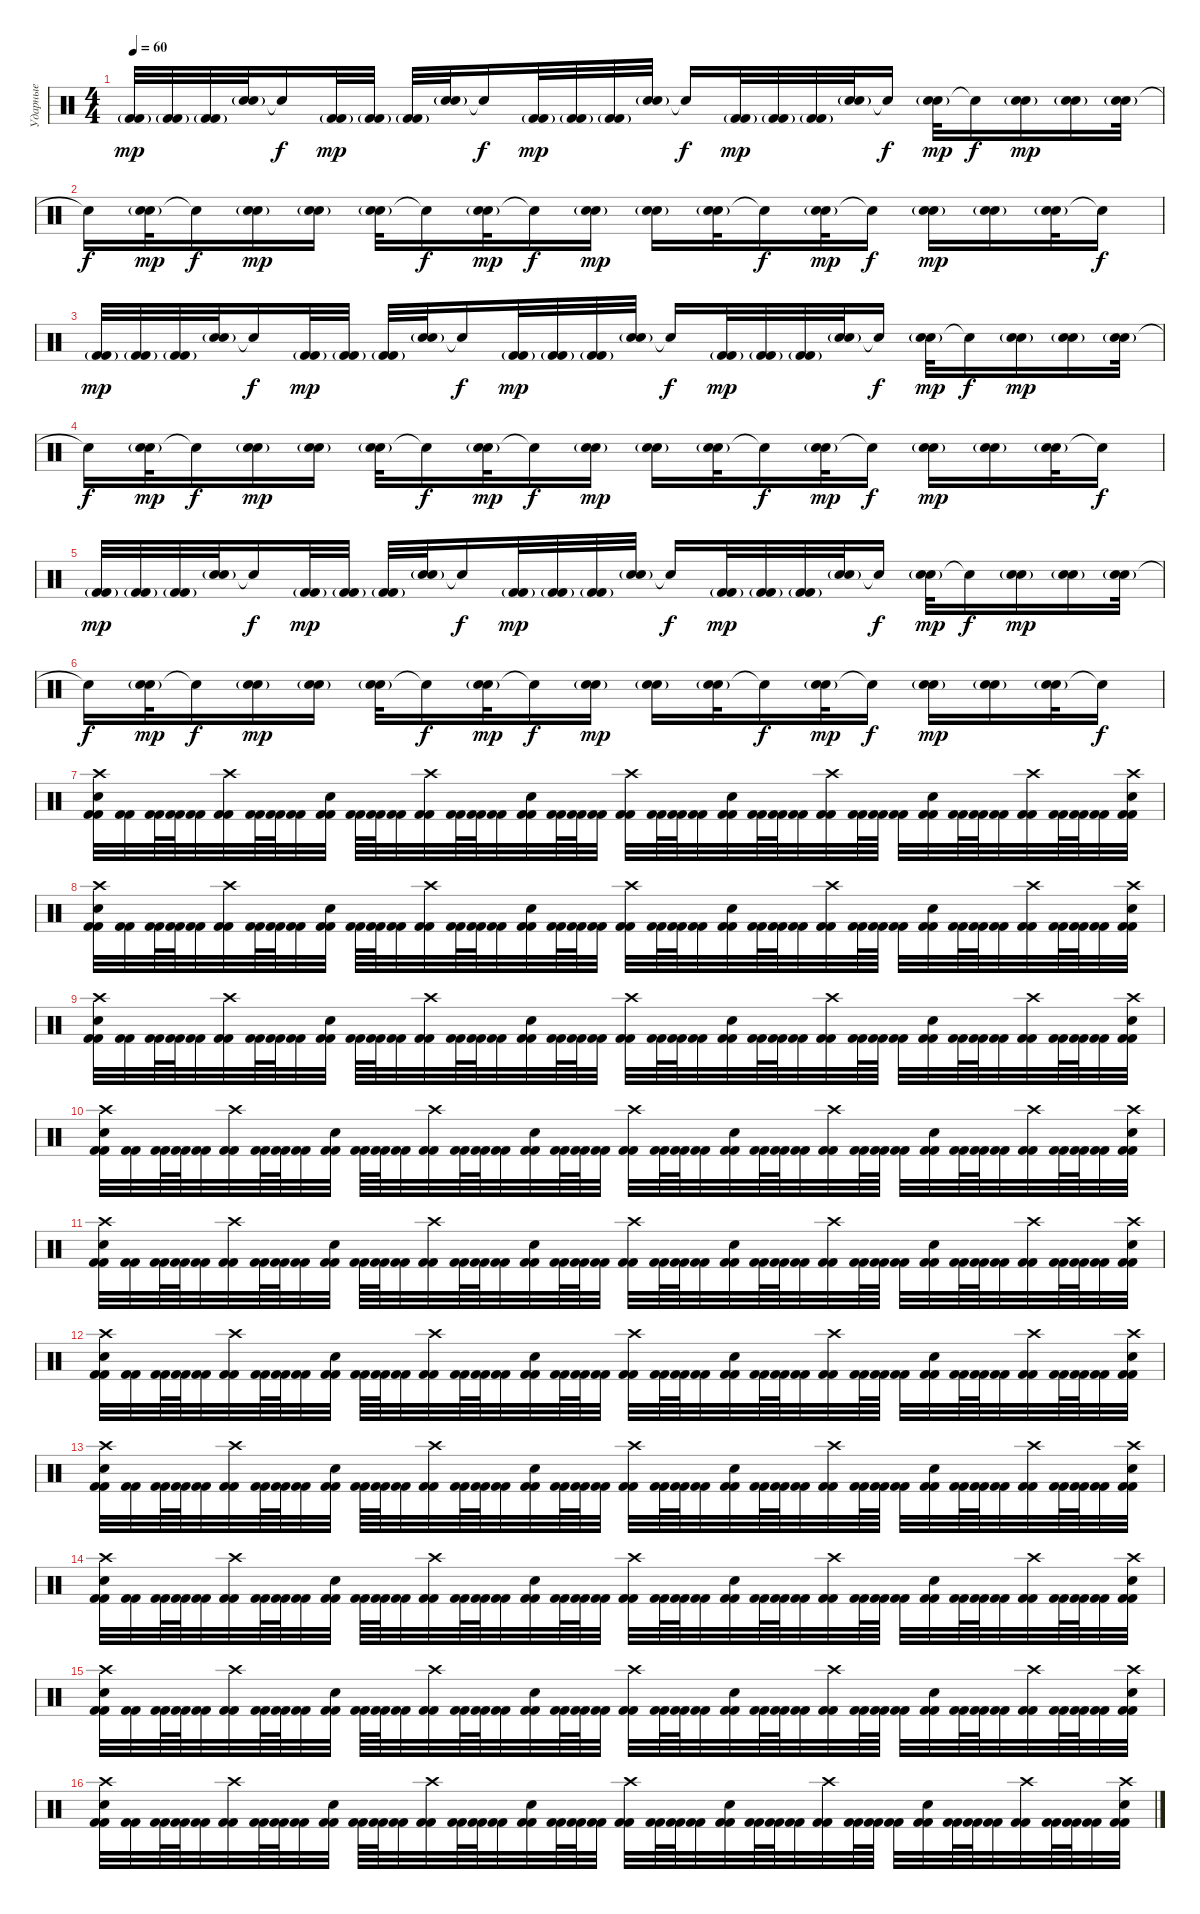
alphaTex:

\track ("Ударные" "Ударные") {instrument percussion}
\staff {score}
\articulation defaults
\ts (4 4)
\tempo 60
\clef neutral
\ks c
("Kick (hit) 2" "Kick (hit) 2"{g}).32{dy mp} ("Kick (hit) 2" "Kick (hit) 2"{g}).32 ("Kick (hit) 2" "Kick (hit) 2"{g}).32 ("Electric Snare (hit)" "Electric Snare (hit)"{g}).32 "Snare (hit)"{t}.16{dy f} ("Kick (hit) 2" "Kick (hit) 2"{g}).32{dy mp} ("Kick (hit) 2" "Kick (hit) 2"{g}).32 ("Kick (hit) 2" "Kick (hit) 2"{g}).32 ("Electric Snare (hit)" "Electric Snare (hit)"{g}).32 "Snare (hit)"{t}.16{dy f} ("Kick (hit) 2" "Kick (hit) 2"{g}).32{dy mp} ("Kick (hit) 2" "Kick (hit) 2"{g}).32 ("Kick (hit) 2" "Kick (hit) 2"{g}).32 ("Electric Snare (hit)" "Electric Snare (hit)"{g}).32 "Snare (hit)"{t}.16{dy f} ("Kick (hit) 2" "Kick (hit) 2"{g}).32{dy mp} ("Kick (hit) 2" "Kick (hit) 2"{g}).32 ("Kick (hit) 2" "Kick (hit) 2"{g}).32 ("Electric Snare (hit)" "Electric Snare (hit)"{g}).32 "Snare (hit)"{t}.16{dy f} ("Electric Snare (hit)"{g} "Electric Snare (hit)"{g}).32{dy mp} "Snare (hit)"{t}.16{dy f} ("Electric Snare (hit)"{g} "Electric Snare (hit)"{g}).16{dy mp} ("Electric Snare (hit)"{g} "Electric Snare (hit)"{g}).16 ("Electric Snare (hit)"{g} "Electric Snare (hit)"{g}).32 |
"Snare (hit)"{t}.16{dy f} ("Electric Snare (hit)"{g} "Electric Snare (hit)"{g}).32{dy mp} "Snare (hit)"{t}.16{dy f} ("Electric Snare (hit)"{g} "Electric Snare (hit)"{g}).16{dy mp} ("Electric Snare (hit)"{g} "Electric Snare (hit)"{g}).16 ("Electric Snare (hit)"{g} "Electric Snare (hit)"{g}).32 "Snare (hit)"{t}.16{dy f} ("Electric Snare (hit)"{g} "Electric Snare (hit)"{g}).32{dy mp} "Snare (hit)"{t}.16{dy f} ("Electric Snare (hit)"{g} "Electric Snare (hit)"{g}).16{dy mp} ("Electric Snare (hit)"{g} "Electric Snare (hit)"{g}).16 ("Electric Snare (hit)"{g} "Electric Snare (hit)"{g}).32 "Snare (hit)"{t}.16{dy f} ("Electric Snare (hit)"{g} "Electric Snare (hit)"{g}).32{dy mp} "Snare (hit)"{t}.16{dy f} ("Electric Snare (hit)"{g} "Electric Snare (hit)"{g}).16{dy mp} ("Electric Snare (hit)"{g} "Electric Snare (hit)"{g}).16 ("Electric Snare (hit)"{g} "Electric Snare (hit)"{g}).32 "Snare (hit)"{t}.16{dy f} |
("Kick (hit) 2" "Kick (hit) 2"{g}).32{dy mp} ("Kick (hit) 2" "Kick (hit) 2"{g}).32 ("Kick (hit) 2" "Kick (hit) 2"{g}).32 ("Electric Snare (hit)" "Electric Snare (hit)"{g}).32 "Snare (hit)"{t}.16{dy f} ("Kick (hit) 2" "Kick (hit) 2"{g}).32{dy mp} ("Kick (hit) 2" "Kick (hit) 2"{g}).32 ("Kick (hit) 2" "Kick (hit) 2"{g}).32 ("Electric Snare (hit)" "Electric Snare (hit)"{g}).32 "Snare (hit)"{t}.16{dy f} ("Kick (hit) 2" "Kick (hit) 2"{g}).32{dy mp} ("Kick (hit) 2" "Kick (hit) 2"{g}).32 ("Kick (hit) 2" "Kick (hit) 2"{g}).32 ("Electric Snare (hit)" "Electric Snare (hit)"{g}).32 "Snare (hit)"{t}.16{dy f} ("Kick (hit) 2" "Kick (hit) 2"{g}).32{dy mp} ("Kick (hit) 2" "Kick (hit) 2"{g}).32 ("Kick (hit) 2" "Kick (hit) 2"{g}).32 ("Electric Snare (hit)" "Electric Snare (hit)"{g}).32 "Snare (hit)"{t}.16{dy f} ("Electric Snare (hit)"{g} "Electric Snare (hit)"{g}).32{dy mp} "Snare (hit)"{t}.16{dy f} ("Electric Snare (hit)"{g} "Electric Snare (hit)"{g}).16{dy mp} ("Electric Snare (hit)"{g} "Electric Snare (hit)"{g}).16 ("Electric Snare (hit)"{g} "Electric Snare (hit)"{g}).32 |
"Snare (hit)"{t}.16{dy f} ("Electric Snare (hit)"{g} "Electric Snare (hit)"{g}).32{dy mp} "Snare (hit)"{t}.16{dy f} ("Electric Snare (hit)"{g} "Electric Snare (hit)"{g}).16{dy mp} ("Electric Snare (hit)"{g} "Electric Snare (hit)"{g}).16 ("Electric Snare (hit)"{g} "Electric Snare (hit)"{g}).32 "Snare (hit)"{t}.16{dy f} ("Electric Snare (hit)"{g} "Electric Snare (hit)"{g}).32{dy mp} "Snare (hit)"{t}.16{dy f} ("Electric Snare (hit)"{g} "Electric Snare (hit)"{g}).16{dy mp} ("Electric Snare (hit)"{g} "Electric Snare (hit)"{g}).16 ("Electric Snare (hit)"{g} "Electric Snare (hit)"{g}).32 "Snare (hit)"{t}.16{dy f} ("Electric Snare (hit)"{g} "Electric Snare (hit)"{g}).32{dy mp} "Snare (hit)"{t}.16{dy f} ("Electric Snare (hit)"{g} "Electric Snare (hit)"{g}).16{dy mp} ("Electric Snare (hit)"{g} "Electric Snare (hit)"{g}).16 ("Electric Snare (hit)"{g} "Electric Snare (hit)"{g}).32 "Snare (hit)"{t}.16{dy f} |
("Kick (hit) 2" "Kick (hit) 2"{g}).32{dy mp} ("Kick (hit) 2" "Kick (hit) 2"{g}).32 ("Kick (hit) 2" "Kick (hit) 2"{g}).32 ("Electric Snare (hit)" "Electric Snare (hit)"{g}).32 "Snare (hit)"{t}.16{dy f} ("Kick (hit) 2" "Kick (hit) 2"{g}).32{dy mp} ("Kick (hit) 2" "Kick (hit) 2"{g}).32 ("Kick (hit) 2" "Kick (hit) 2"{g}).32 ("Electric Snare (hit)" "Electric Snare (hit)"{g}).32 "Snare (hit)"{t}.16{dy f} ("Kick (hit) 2" "Kick (hit) 2"{g}).32{dy mp} ("Kick (hit) 2" "Kick (hit) 2"{g}).32 ("Kick (hit) 2" "Kick (hit) 2"{g}).32 ("Electric Snare (hit)" "Electric Snare (hit)"{g}).32 "Snare (hit)"{t}.16{dy f} ("Kick (hit) 2" "Kick (hit) 2"{g}).32{dy mp} ("Kick (hit) 2" "Kick (hit) 2"{g}).32 ("Kick (hit) 2" "Kick (hit) 2"{g}).32 ("Electric Snare (hit)" "Electric Snare (hit)"{g}).32 "Snare (hit)"{t}.16{dy f} ("Electric Snare (hit)"{g} "Electric Snare (hit)"{g}).32{dy mp} "Snare (hit)"{t}.16{dy f} ("Electric Snare (hit)"{g} "Electric Snare (hit)"{g}).16{dy mp} ("Electric Snare (hit)"{g} "Electric Snare (hit)"{g}).16 ("Electric Snare (hit)"{g} "Electric Snare (hit)"{g}).32 |
"Snare (hit)"{t}.16{dy f} ("Electric Snare (hit)"{g} "Electric Snare (hit)"{g}).32{dy mp} "Snare (hit)"{t}.16{dy f} ("Electric Snare (hit)"{g} "Electric Snare (hit)"{g}).16{dy mp} ("Electric Snare (hit)"{g} "Electric Snare (hit)"{g}).16 ("Electric Snare (hit)"{g} "Electric Snare (hit)"{g}).32 "Snare (hit)"{t}.16{dy f} ("Electric Snare (hit)"{g} "Electric Snare (hit)"{g}).32{dy mp} "Snare (hit)"{t}.16{dy f} ("Electric Snare (hit)"{g} "Electric Snare (hit)"{g}).16{dy mp} ("Electric Snare (hit)"{g} "Electric Snare (hit)"{g}).16 ("Electric Snare (hit)"{g} "Electric Snare (hit)"{g}).32 "Snare (hit)"{t}.16{dy f} ("Electric Snare (hit)"{g} "Electric Snare (hit)"{g}).32{dy mp} "Snare (hit)"{t}.16{dy f} ("Electric Snare (hit)"{g} "Electric Snare (hit)"{g}).16{dy mp} ("Electric Snare (hit)"{g} "Electric Snare (hit)"{g}).16 ("Electric Snare (hit)"{g} "Electric Snare (hit)"{g}).32 "Snare (hit)"{t}.16{dy f} |
("Kick (hit) 2" "Kick (hit) 2" "Electric Snare (hit)" "Crash high (hit)").32 ("Kick (hit) 2" "Kick (hit) 2").32 ("Kick (hit) 2" "Kick (hit) 2").64 ("Kick (hit) 2" "Kick (hit) 2").64 ("Kick (hit) 2" "Kick (hit) 2").32 ("Kick (hit) 2" "Kick (hit) 2" "Crash high (hit)").32 ("Kick (hit) 2" "Kick (hit) 2").64 ("Kick (hit) 2" "Kick (hit) 2").64 ("Kick (hit) 2" "Kick (hit) 2").32 ("Kick (hit) 2" "Kick (hit) 2" "Electric Snare (hit)").32 ("Kick (hit) 2" "Kick (hit) 2").64 ("Kick (hit) 2" "Kick (hit) 2").64 ("Kick (hit) 2" "Kick (hit) 2").32 ("Kick (hit) 2" "Kick (hit) 2" "Crash high (hit)").32 ("Kick (hit) 2" "Kick (hit) 2").64 ("Kick (hit) 2" "Kick (hit) 2").64 ("Kick (hit) 2" "Kick (hit) 2").32 ("Kick (hit) 2" "Kick (hit) 2" "Electric Snare (hit)").32 ("Kick (hit) 2" "Kick (hit) 2").64 ("Kick (hit) 2" "Kick (hit) 2").64 ("Kick (hit) 2" "Kick (hit) 2").32 ("Kick (hit) 2" "Kick (hit) 2" "Crash high (hit)").32 ("Kick (hit) 2" "Kick (hit) 2").64 ("Kick (hit) 2" "Kick (hit) 2").64 ("Kick (hit) 2" "Kick (hit) 2").32 ("Kick (hit) 2" "Kick (hit) 2" "Electric Snare (hit)").32 ("Kick (hit) 2" "Kick (hit) 2").64 ("Kick (hit) 2" "Kick (hit) 2").64 ("Kick (hit) 2" "Kick (hit) 2").32 ("Kick (hit) 2" "Kick (hit) 2" "Crash high (hit)").32 ("Kick (hit) 2" "Kick (hit) 2").64 ("Kick (hit) 2" "Kick (hit) 2").64 ("Kick (hit) 2" "Kick (hit) 2").32 ("Kick (hit) 2" "Kick (hit) 2" "Electric Snare (hit)").32 ("Kick (hit) 2" "Kick (hit) 2").64 ("Kick (hit) 2" "Kick (hit) 2").64 ("Kick (hit) 2" "Kick (hit) 2").32 ("Kick (hit) 2" "Kick (hit) 2" "Crash high (hit)").32 ("Kick (hit) 2" "Kick (hit) 2").64 ("Kick (hit) 2" "Kick (hit) 2").64 ("Kick (hit) 2" "Kick (hit) 2").32 ("Kick (hit) 2" "Kick (hit) 2" "Electric Snare (hit)" "Crash high (hit)").32 |
("Kick (hit) 2" "Kick (hit) 2" "Electric Snare (hit)" "Crash high (hit)").32 ("Kick (hit) 2" "Kick (hit) 2").32 ("Kick (hit) 2" "Kick (hit) 2").64 ("Kick (hit) 2" "Kick (hit) 2").64 ("Kick (hit) 2" "Kick (hit) 2").32 ("Kick (hit) 2" "Kick (hit) 2" "Crash high (hit)").32 ("Kick (hit) 2" "Kick (hit) 2").64 ("Kick (hit) 2" "Kick (hit) 2").64 ("Kick (hit) 2" "Kick (hit) 2").32 ("Kick (hit) 2" "Kick (hit) 2" "Electric Snare (hit)").32 ("Kick (hit) 2" "Kick (hit) 2").64 ("Kick (hit) 2" "Kick (hit) 2").64 ("Kick (hit) 2" "Kick (hit) 2").32 ("Kick (hit) 2" "Kick (hit) 2" "Crash high (hit)").32 ("Kick (hit) 2" "Kick (hit) 2").64 ("Kick (hit) 2" "Kick (hit) 2").64 ("Kick (hit) 2" "Kick (hit) 2").32 ("Kick (hit) 2" "Kick (hit) 2" "Electric Snare (hit)").32 ("Kick (hit) 2" "Kick (hit) 2").64 ("Kick (hit) 2" "Kick (hit) 2").64 ("Kick (hit) 2" "Kick (hit) 2").32 ("Kick (hit) 2" "Kick (hit) 2" "Crash high (hit)").32 ("Kick (hit) 2" "Kick (hit) 2").64 ("Kick (hit) 2" "Kick (hit) 2").64 ("Kick (hit) 2" "Kick (hit) 2").32 ("Kick (hit) 2" "Kick (hit) 2" "Electric Snare (hit)").32 ("Kick (hit) 2" "Kick (hit) 2").64 ("Kick (hit) 2" "Kick (hit) 2").64 ("Kick (hit) 2" "Kick (hit) 2").32 ("Kick (hit) 2" "Kick (hit) 2" "Crash high (hit)").32 ("Kick (hit) 2" "Kick (hit) 2").64 ("Kick (hit) 2" "Kick (hit) 2").64 ("Kick (hit) 2" "Kick (hit) 2").32 ("Kick (hit) 2" "Kick (hit) 2" "Electric Snare (hit)").32 ("Kick (hit) 2" "Kick (hit) 2").64 ("Kick (hit) 2" "Kick (hit) 2").64 ("Kick (hit) 2" "Kick (hit) 2").32 ("Kick (hit) 2" "Kick (hit) 2" "Crash high (hit)").32 ("Kick (hit) 2" "Kick (hit) 2").64 ("Kick (hit) 2" "Kick (hit) 2").64 ("Kick (hit) 2" "Kick (hit) 2").32 ("Kick (hit) 2" "Kick (hit) 2" "Electric Snare (hit)" "Crash high (hit)").32 |
("Kick (hit) 2" "Kick (hit) 2" "Electric Snare (hit)" "Crash high (hit)").32 ("Kick (hit) 2" "Kick (hit) 2").32 ("Kick (hit) 2" "Kick (hit) 2").64 ("Kick (hit) 2" "Kick (hit) 2").64 ("Kick (hit) 2" "Kick (hit) 2").32 ("Kick (hit) 2" "Kick (hit) 2" "Crash high (hit)").32 ("Kick (hit) 2" "Kick (hit) 2").64 ("Kick (hit) 2" "Kick (hit) 2").64 ("Kick (hit) 2" "Kick (hit) 2").32 ("Kick (hit) 2" "Kick (hit) 2" "Electric Snare (hit)").32 ("Kick (hit) 2" "Kick (hit) 2").64 ("Kick (hit) 2" "Kick (hit) 2").64 ("Kick (hit) 2" "Kick (hit) 2").32 ("Kick (hit) 2" "Kick (hit) 2" "Crash high (hit)").32 ("Kick (hit) 2" "Kick (hit) 2").64 ("Kick (hit) 2" "Kick (hit) 2").64 ("Kick (hit) 2" "Kick (hit) 2").32 ("Kick (hit) 2" "Kick (hit) 2" "Electric Snare (hit)").32 ("Kick (hit) 2" "Kick (hit) 2").64 ("Kick (hit) 2" "Kick (hit) 2").64 ("Kick (hit) 2" "Kick (hit) 2").32 ("Kick (hit) 2" "Kick (hit) 2" "Crash high (hit)").32 ("Kick (hit) 2" "Kick (hit) 2").64 ("Kick (hit) 2" "Kick (hit) 2").64 ("Kick (hit) 2" "Kick (hit) 2").32 ("Kick (hit) 2" "Kick (hit) 2" "Electric Snare (hit)").32 ("Kick (hit) 2" "Kick (hit) 2").64 ("Kick (hit) 2" "Kick (hit) 2").64 ("Kick (hit) 2" "Kick (hit) 2").32 ("Kick (hit) 2" "Kick (hit) 2" "Crash high (hit)").32 ("Kick (hit) 2" "Kick (hit) 2").64 ("Kick (hit) 2" "Kick (hit) 2").64 ("Kick (hit) 2" "Kick (hit) 2").32 ("Kick (hit) 2" "Kick (hit) 2" "Electric Snare (hit)").32 ("Kick (hit) 2" "Kick (hit) 2").64 ("Kick (hit) 2" "Kick (hit) 2").64 ("Kick (hit) 2" "Kick (hit) 2").32 ("Kick (hit) 2" "Kick (hit) 2" "Crash high (hit)").32 ("Kick (hit) 2" "Kick (hit) 2").64 ("Kick (hit) 2" "Kick (hit) 2").64 ("Kick (hit) 2" "Kick (hit) 2").32 ("Kick (hit) 2" "Kick (hit) 2" "Electric Snare (hit)" "Crash high (hit)").32 |
("Kick (hit) 2" "Kick (hit) 2" "Electric Snare (hit)" "Crash high (hit)").32 ("Kick (hit) 2" "Kick (hit) 2").32 ("Kick (hit) 2" "Kick (hit) 2").64 ("Kick (hit) 2" "Kick (hit) 2").64 ("Kick (hit) 2" "Kick (hit) 2").32 ("Kick (hit) 2" "Kick (hit) 2" "Crash high (hit)").32 ("Kick (hit) 2" "Kick (hit) 2").64 ("Kick (hit) 2" "Kick (hit) 2").64 ("Kick (hit) 2" "Kick (hit) 2").32 ("Kick (hit) 2" "Kick (hit) 2" "Electric Snare (hit)").32 ("Kick (hit) 2" "Kick (hit) 2").64 ("Kick (hit) 2" "Kick (hit) 2").64 ("Kick (hit) 2" "Kick (hit) 2").32 ("Kick (hit) 2" "Kick (hit) 2" "Crash high (hit)").32 ("Kick (hit) 2" "Kick (hit) 2").64 ("Kick (hit) 2" "Kick (hit) 2").64 ("Kick (hit) 2" "Kick (hit) 2").32 ("Kick (hit) 2" "Kick (hit) 2" "Electric Snare (hit)").32 ("Kick (hit) 2" "Kick (hit) 2").64 ("Kick (hit) 2" "Kick (hit) 2").64 ("Kick (hit) 2" "Kick (hit) 2").32 ("Kick (hit) 2" "Kick (hit) 2" "Crash high (hit)").32 ("Kick (hit) 2" "Kick (hit) 2").64 ("Kick (hit) 2" "Kick (hit) 2").64 ("Kick (hit) 2" "Kick (hit) 2").32 ("Kick (hit) 2" "Kick (hit) 2" "Electric Snare (hit)").32 ("Kick (hit) 2" "Kick (hit) 2").64 ("Kick (hit) 2" "Kick (hit) 2").64 ("Kick (hit) 2" "Kick (hit) 2").32 ("Kick (hit) 2" "Kick (hit) 2" "Crash high (hit)").32 ("Kick (hit) 2" "Kick (hit) 2").64 ("Kick (hit) 2" "Kick (hit) 2").64 ("Kick (hit) 2" "Kick (hit) 2").32 ("Kick (hit) 2" "Kick (hit) 2" "Electric Snare (hit)").32 ("Kick (hit) 2" "Kick (hit) 2").64 ("Kick (hit) 2" "Kick (hit) 2").64 ("Kick (hit) 2" "Kick (hit) 2").32 ("Kick (hit) 2" "Kick (hit) 2" "Crash high (hit)").32 ("Kick (hit) 2" "Kick (hit) 2").64 ("Kick (hit) 2" "Kick (hit) 2").64 ("Kick (hit) 2" "Kick (hit) 2").32 ("Kick (hit) 2" "Kick (hit) 2" "Electric Snare (hit)" "Crash high (hit)").32 |
("Kick (hit) 2" "Kick (hit) 2" "Electric Snare (hit)" "Crash high (hit)").32 ("Kick (hit) 2" "Kick (hit) 2").32 ("Kick (hit) 2" "Kick (hit) 2").64 ("Kick (hit) 2" "Kick (hit) 2").64 ("Kick (hit) 2" "Kick (hit) 2").32 ("Kick (hit) 2" "Kick (hit) 2" "Crash high (hit)").32 ("Kick (hit) 2" "Kick (hit) 2").64 ("Kick (hit) 2" "Kick (hit) 2").64 ("Kick (hit) 2" "Kick (hit) 2").32 ("Kick (hit) 2" "Kick (hit) 2" "Electric Snare (hit)").32 ("Kick (hit) 2" "Kick (hit) 2").64 ("Kick (hit) 2" "Kick (hit) 2").64 ("Kick (hit) 2" "Kick (hit) 2").32 ("Kick (hit) 2" "Kick (hit) 2" "Crash high (hit)").32 ("Kick (hit) 2" "Kick (hit) 2").64 ("Kick (hit) 2" "Kick (hit) 2").64 ("Kick (hit) 2" "Kick (hit) 2").32 ("Kick (hit) 2" "Kick (hit) 2" "Electric Snare (hit)").32 ("Kick (hit) 2" "Kick (hit) 2").64 ("Kick (hit) 2" "Kick (hit) 2").64 ("Kick (hit) 2" "Kick (hit) 2").32 ("Kick (hit) 2" "Kick (hit) 2" "Crash high (hit)").32 ("Kick (hit) 2" "Kick (hit) 2").64 ("Kick (hit) 2" "Kick (hit) 2").64 ("Kick (hit) 2" "Kick (hit) 2").32 ("Kick (hit) 2" "Kick (hit) 2" "Electric Snare (hit)").32 ("Kick (hit) 2" "Kick (hit) 2").64 ("Kick (hit) 2" "Kick (hit) 2").64 ("Kick (hit) 2" "Kick (hit) 2").32 ("Kick (hit) 2" "Kick (hit) 2" "Crash high (hit)").32 ("Kick (hit) 2" "Kick (hit) 2").64 ("Kick (hit) 2" "Kick (hit) 2").64 ("Kick (hit) 2" "Kick (hit) 2").32 ("Kick (hit) 2" "Kick (hit) 2" "Electric Snare (hit)").32 ("Kick (hit) 2" "Kick (hit) 2").64 ("Kick (hit) 2" "Kick (hit) 2").64 ("Kick (hit) 2" "Kick (hit) 2").32 ("Kick (hit) 2" "Kick (hit) 2" "Crash high (hit)").32 ("Kick (hit) 2" "Kick (hit) 2").64 ("Kick (hit) 2" "Kick (hit) 2").64 ("Kick (hit) 2" "Kick (hit) 2").32 ("Kick (hit) 2" "Kick (hit) 2" "Electric Snare (hit)" "Crash high (hit)").32 |
("Kick (hit) 2" "Kick (hit) 2" "Electric Snare (hit)" "Crash high (hit)").32 ("Kick (hit) 2" "Kick (hit) 2").32 ("Kick (hit) 2" "Kick (hit) 2").64 ("Kick (hit) 2" "Kick (hit) 2").64 ("Kick (hit) 2" "Kick (hit) 2").32 ("Kick (hit) 2" "Kick (hit) 2" "Crash high (hit)").32 ("Kick (hit) 2" "Kick (hit) 2").64 ("Kick (hit) 2" "Kick (hit) 2").64 ("Kick (hit) 2" "Kick (hit) 2").32 ("Kick (hit) 2" "Kick (hit) 2" "Electric Snare (hit)").32 ("Kick (hit) 2" "Kick (hit) 2").64 ("Kick (hit) 2" "Kick (hit) 2").64 ("Kick (hit) 2" "Kick (hit) 2").32 ("Kick (hit) 2" "Kick (hit) 2" "Crash high (hit)").32 ("Kick (hit) 2" "Kick (hit) 2").64 ("Kick (hit) 2" "Kick (hit) 2").64 ("Kick (hit) 2" "Kick (hit) 2").32 ("Kick (hit) 2" "Kick (hit) 2" "Electric Snare (hit)").32 ("Kick (hit) 2" "Kick (hit) 2").64 ("Kick (hit) 2" "Kick (hit) 2").64 ("Kick (hit) 2" "Kick (hit) 2").32 ("Kick (hit) 2" "Kick (hit) 2" "Crash high (hit)").32 ("Kick (hit) 2" "Kick (hit) 2").64 ("Kick (hit) 2" "Kick (hit) 2").64 ("Kick (hit) 2" "Kick (hit) 2").32 ("Kick (hit) 2" "Kick (hit) 2" "Electric Snare (hit)").32 ("Kick (hit) 2" "Kick (hit) 2").64 ("Kick (hit) 2" "Kick (hit) 2").64 ("Kick (hit) 2" "Kick (hit) 2").32 ("Kick (hit) 2" "Kick (hit) 2" "Crash high (hit)").32 ("Kick (hit) 2" "Kick (hit) 2").64 ("Kick (hit) 2" "Kick (hit) 2").64 ("Kick (hit) 2" "Kick (hit) 2").32 ("Kick (hit) 2" "Kick (hit) 2" "Electric Snare (hit)").32 ("Kick (hit) 2" "Kick (hit) 2").64 ("Kick (hit) 2" "Kick (hit) 2").64 ("Kick (hit) 2" "Kick (hit) 2").32 ("Kick (hit) 2" "Kick (hit) 2" "Crash high (hit)").32 ("Kick (hit) 2" "Kick (hit) 2").64 ("Kick (hit) 2" "Kick (hit) 2").64 ("Kick (hit) 2" "Kick (hit) 2").32 ("Kick (hit) 2" "Kick (hit) 2" "Electric Snare (hit)" "Crash high (hit)").32 |
("Kick (hit) 2" "Kick (hit) 2" "Electric Snare (hit)" "Crash high (hit)").32 ("Kick (hit) 2" "Kick (hit) 2").32 ("Kick (hit) 2" "Kick (hit) 2").64 ("Kick (hit) 2" "Kick (hit) 2").64 ("Kick (hit) 2" "Kick (hit) 2").32 ("Kick (hit) 2" "Kick (hit) 2" "Crash high (hit)").32 ("Kick (hit) 2" "Kick (hit) 2").64 ("Kick (hit) 2" "Kick (hit) 2").64 ("Kick (hit) 2" "Kick (hit) 2").32 ("Kick (hit) 2" "Kick (hit) 2" "Electric Snare (hit)").32 ("Kick (hit) 2" "Kick (hit) 2").64 ("Kick (hit) 2" "Kick (hit) 2").64 ("Kick (hit) 2" "Kick (hit) 2").32 ("Kick (hit) 2" "Kick (hit) 2" "Crash high (hit)").32 ("Kick (hit) 2" "Kick (hit) 2").64 ("Kick (hit) 2" "Kick (hit) 2").64 ("Kick (hit) 2" "Kick (hit) 2").32 ("Kick (hit) 2" "Kick (hit) 2" "Electric Snare (hit)").32 ("Kick (hit) 2" "Kick (hit) 2").64 ("Kick (hit) 2" "Kick (hit) 2").64 ("Kick (hit) 2" "Kick (hit) 2").32 ("Kick (hit) 2" "Kick (hit) 2" "Crash high (hit)").32 ("Kick (hit) 2" "Kick (hit) 2").64 ("Kick (hit) 2" "Kick (hit) 2").64 ("Kick (hit) 2" "Kick (hit) 2").32 ("Kick (hit) 2" "Kick (hit) 2" "Electric Snare (hit)").32 ("Kick (hit) 2" "Kick (hit) 2").64 ("Kick (hit) 2" "Kick (hit) 2").64 ("Kick (hit) 2" "Kick (hit) 2").32 ("Kick (hit) 2" "Kick (hit) 2" "Crash high (hit)").32 ("Kick (hit) 2" "Kick (hit) 2").64 ("Kick (hit) 2" "Kick (hit) 2").64 ("Kick (hit) 2" "Kick (hit) 2").32 ("Kick (hit) 2" "Kick (hit) 2" "Electric Snare (hit)").32 ("Kick (hit) 2" "Kick (hit) 2").64 ("Kick (hit) 2" "Kick (hit) 2").64 ("Kick (hit) 2" "Kick (hit) 2").32 ("Kick (hit) 2" "Kick (hit) 2" "Crash high (hit)").32 ("Kick (hit) 2" "Kick (hit) 2").64 ("Kick (hit) 2" "Kick (hit) 2").64 ("Kick (hit) 2" "Kick (hit) 2").32 ("Kick (hit) 2" "Kick (hit) 2" "Electric Snare (hit)" "Crash high (hit)").32 |
("Kick (hit) 2" "Kick (hit) 2" "Electric Snare (hit)" "Crash high (hit)").32 ("Kick (hit) 2" "Kick (hit) 2").32 ("Kick (hit) 2" "Kick (hit) 2").64 ("Kick (hit) 2" "Kick (hit) 2").64 ("Kick (hit) 2" "Kick (hit) 2").32 ("Kick (hit) 2" "Kick (hit) 2" "Crash high (hit)").32 ("Kick (hit) 2" "Kick (hit) 2").64 ("Kick (hit) 2" "Kick (hit) 2").64 ("Kick (hit) 2" "Kick (hit) 2").32 ("Kick (hit) 2" "Kick (hit) 2" "Electric Snare (hit)").32 ("Kick (hit) 2" "Kick (hit) 2").64 ("Kick (hit) 2" "Kick (hit) 2").64 ("Kick (hit) 2" "Kick (hit) 2").32 ("Kick (hit) 2" "Kick (hit) 2" "Crash high (hit)").32 ("Kick (hit) 2" "Kick (hit) 2").64 ("Kick (hit) 2" "Kick (hit) 2").64 ("Kick (hit) 2" "Kick (hit) 2").32 ("Kick (hit) 2" "Kick (hit) 2" "Electric Snare (hit)").32 ("Kick (hit) 2" "Kick (hit) 2").64 ("Kick (hit) 2" "Kick (hit) 2").64 ("Kick (hit) 2" "Kick (hit) 2").32 ("Kick (hit) 2" "Kick (hit) 2" "Crash high (hit)").32 ("Kick (hit) 2" "Kick (hit) 2").64 ("Kick (hit) 2" "Kick (hit) 2").64 ("Kick (hit) 2" "Kick (hit) 2").32 ("Kick (hit) 2" "Kick (hit) 2" "Electric Snare (hit)").32 ("Kick (hit) 2" "Kick (hit) 2").64 ("Kick (hit) 2" "Kick (hit) 2").64 ("Kick (hit) 2" "Kick (hit) 2").32 ("Kick (hit) 2" "Kick (hit) 2" "Crash high (hit)").32 ("Kick (hit) 2" "Kick (hit) 2").64 ("Kick (hit) 2" "Kick (hit) 2").64 ("Kick (hit) 2" "Kick (hit) 2").32 ("Kick (hit) 2" "Kick (hit) 2" "Electric Snare (hit)").32 ("Kick (hit) 2" "Kick (hit) 2").64 ("Kick (hit) 2" "Kick (hit) 2").64 ("Kick (hit) 2" "Kick (hit) 2").32 ("Kick (hit) 2" "Kick (hit) 2" "Crash high (hit)").32 ("Kick (hit) 2" "Kick (hit) 2").64 ("Kick (hit) 2" "Kick (hit) 2").64 ("Kick (hit) 2" "Kick (hit) 2").32 ("Kick (hit) 2" "Kick (hit) 2" "Electric Snare (hit)" "Crash high (hit)").32 |
("Kick (hit) 2" "Kick (hit) 2" "Electric Snare (hit)" "Crash high (hit)").32 ("Kick (hit) 2" "Kick (hit) 2").32 ("Kick (hit) 2" "Kick (hit) 2").64 ("Kick (hit) 2" "Kick (hit) 2").64 ("Kick (hit) 2" "Kick (hit) 2").32 ("Kick (hit) 2" "Kick (hit) 2" "Crash high (hit)").32 ("Kick (hit) 2" "Kick (hit) 2").64 ("Kick (hit) 2" "Kick (hit) 2").64 ("Kick (hit) 2" "Kick (hit) 2").32 ("Kick (hit) 2" "Kick (hit) 2" "Electric Snare (hit)").32 ("Kick (hit) 2" "Kick (hit) 2").64 ("Kick (hit) 2" "Kick (hit) 2").64 ("Kick (hit) 2" "Kick (hit) 2").32 ("Kick (hit) 2" "Kick (hit) 2" "Crash high (hit)").32 ("Kick (hit) 2" "Kick (hit) 2").64 ("Kick (hit) 2" "Kick (hit) 2").64 ("Kick (hit) 2" "Kick (hit) 2").32 ("Kick (hit) 2" "Kick (hit) 2" "Electric Snare (hit)").32 ("Kick (hit) 2" "Kick (hit) 2").64 ("Kick (hit) 2" "Kick (hit) 2").64 ("Kick (hit) 2" "Kick (hit) 2").32 ("Kick (hit) 2" "Kick (hit) 2" "Crash high (hit)").32 ("Kick (hit) 2" "Kick (hit) 2").64 ("Kick (hit) 2" "Kick (hit) 2").64 ("Kick (hit) 2" "Kick (hit) 2").32 ("Kick (hit) 2" "Kick (hit) 2" "Electric Snare (hit)").32 ("Kick (hit) 2" "Kick (hit) 2").64 ("Kick (hit) 2" "Kick (hit) 2").64 ("Kick (hit) 2" "Kick (hit) 2").32 ("Kick (hit) 2" "Kick (hit) 2" "Crash high (hit)").32 ("Kick (hit) 2" "Kick (hit) 2").64 ("Kick (hit) 2" "Kick (hit) 2").64 ("Kick (hit) 2" "Kick (hit) 2").32 ("Kick (hit) 2" "Kick (hit) 2" "Electric Snare (hit)").32 ("Kick (hit) 2" "Kick (hit) 2").64 ("Kick (hit) 2" "Kick (hit) 2").64 ("Kick (hit) 2" "Kick (hit) 2").32 ("Kick (hit) 2" "Kick (hit) 2" "Crash high (hit)").32 ("Kick (hit) 2" "Kick (hit) 2").64 ("Kick (hit) 2" "Kick (hit) 2").64 ("Kick (hit) 2" "Kick (hit) 2").32 ("Kick (hit) 2" "Kick (hit) 2" "Electric Snare (hit)" "Crash high (hit)").32 |
("Kick (hit) 2" "Kick (hit) 2" "Electric Snare (hit)" "Crash high (hit)").32 ("Kick (hit) 2" "Kick (hit) 2").32 ("Kick (hit) 2" "Kick (hit) 2").64 ("Kick (hit) 2" "Kick (hit) 2").64 ("Kick (hit) 2" "Kick (hit) 2").32 ("Kick (hit) 2" "Kick (hit) 2" "Crash high (hit)").32 ("Kick (hit) 2" "Kick (hit) 2").64 ("Kick (hit) 2" "Kick (hit) 2").64 ("Kick (hit) 2" "Kick (hit) 2").32 ("Kick (hit) 2" "Kick (hit) 2" "Electric Snare (hit)").32 ("Kick (hit) 2" "Kick (hit) 2").64 ("Kick (hit) 2" "Kick (hit) 2").64 ("Kick (hit) 2" "Kick (hit) 2").32 ("Kick (hit) 2" "Kick (hit) 2" "Crash high (hit)").32 ("Kick (hit) 2" "Kick (hit) 2").64 ("Kick (hit) 2" "Kick (hit) 2").64 ("Kick (hit) 2" "Kick (hit) 2").32 ("Kick (hit) 2" "Kick (hit) 2" "Electric Snare (hit)").32 ("Kick (hit) 2" "Kick (hit) 2").64 ("Kick (hit) 2" "Kick (hit) 2").64 ("Kick (hit) 2" "Kick (hit) 2").32 ("Kick (hit) 2" "Kick (hit) 2" "Crash high (hit)").32 ("Kick (hit) 2" "Kick (hit) 2").64 ("Kick (hit) 2" "Kick (hit) 2").64 ("Kick (hit) 2" "Kick (hit) 2").32 ("Kick (hit) 2" "Kick (hit) 2" "Electric Snare (hit)").32 ("Kick (hit) 2" "Kick (hit) 2").64 ("Kick (hit) 2" "Kick (hit) 2").64 ("Kick (hit) 2" "Kick (hit) 2").32 ("Kick (hit) 2" "Kick (hit) 2" "Crash high (hit)").32 ("Kick (hit) 2" "Kick (hit) 2").64 ("Kick (hit) 2" "Kick (hit) 2").64 ("Kick (hit) 2" "Kick (hit) 2").32 ("Kick (hit) 2" "Kick (hit) 2" "Electric Snare (hit)").32 ("Kick (hit) 2" "Kick (hit) 2").64 ("Kick (hit) 2" "Kick (hit) 2").64 ("Kick (hit) 2" "Kick (hit) 2").32 ("Kick (hit) 2" "Kick (hit) 2" "Crash high (hit)").32 ("Kick (hit) 2" "Kick (hit) 2").64 ("Kick (hit) 2" "Kick (hit) 2").64 ("Kick (hit) 2" "Kick (hit) 2").32 ("Kick (hit) 2" "Kick (hit) 2" "Electric Snare (hit)" "Crash high (hit)").32
